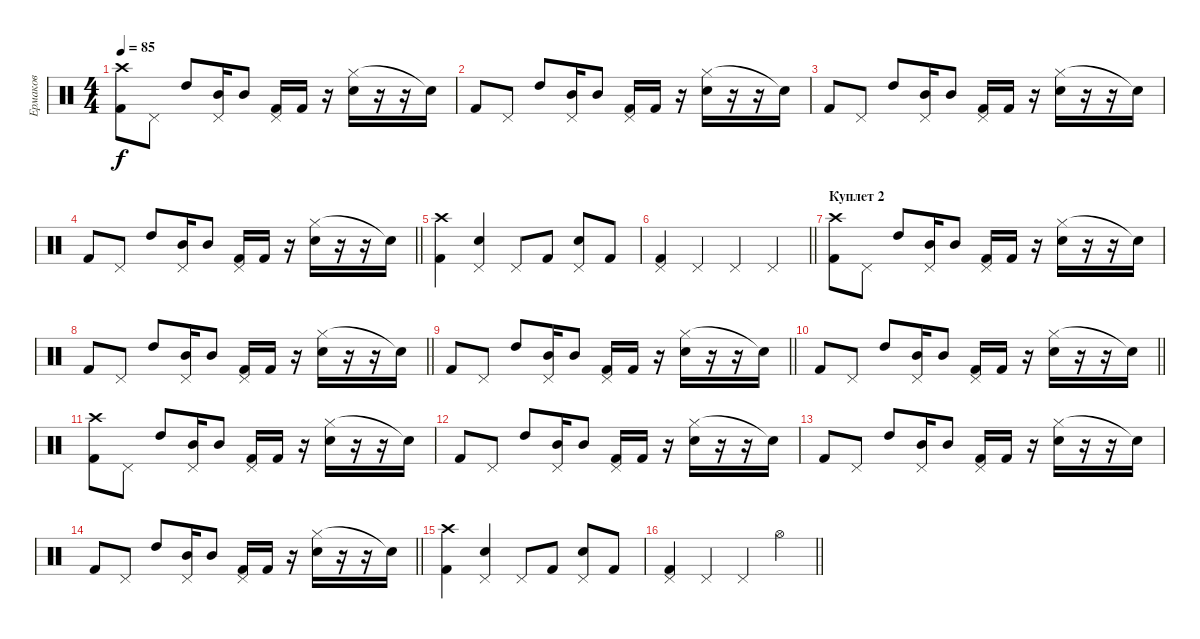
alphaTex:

\track ("Ермаков" "Ермаков") {instrument percussion}
\staff {score}
\articulation defaults
\ts (4 4)
\tempo 85
\clef neutral
\ks c
("Crash high (hit)" "Kick (hit) 2").8{dy f} "Pedal Hi-Hat (hit)".8 "High Tom (hit)".8 ("Pedal Hi-Hat (hit)" "Mid Tom (hit)").16 "Mid Tom (hit)".8 ("Pedal Hi-Hat (hit)" "Kick (hit) 2").16 "Kick (hit) 2".16 r.16 ("Hi-Hat (closed)" "Snare (hit) 2").16 r.16 r.16 "Snare (hit)"{t}.16 |
"Kick (hit) 2".8 "Pedal Hi-Hat (hit)".8 "High Tom (hit)".8 ("Pedal Hi-Hat (hit)" "Mid Tom (hit)").16 "Mid Tom (hit)".8 ("Pedal Hi-Hat (hit)" "Kick (hit) 2").16 "Kick (hit) 2".16 r.16 ("Hi-Hat (closed)" "Snare (hit) 2").16 r.16 r.16 "Snare (hit)"{t}.16 |
"Kick (hit) 2".8 "Pedal Hi-Hat (hit)".8 "High Tom (hit)".8 ("Pedal Hi-Hat (hit)" "Mid Tom (hit)").16 "Mid Tom (hit)".8 ("Pedal Hi-Hat (hit)" "Kick (hit) 2").16 "Kick (hit) 2".16 r.16 ("Hi-Hat (closed)" "Snare (hit) 2").16 r.16 r.16 "Snare (hit)"{t}.16 |
\barLineRight lightlight "Kick (hit) 2".8 "Pedal Hi-Hat (hit)".8 "High Tom (hit)".8
("Pedal Hi-Hat (hit)" "Mid Tom (hit)").16 "Mid Tom (hit)".8 ("Pedal Hi-Hat (hit)" "Kick (hit) 2").16 "Kick (hit) 2".16 r.16 ("Hi-Hat (closed)" "Snare (hit) 2").16 r.16 r.16 "Snare (hit)"{t}.16 |
\section ("" "")
("Crash high (hit)" "Kick (hit) 2").4 ("Pedal Hi-Hat (hit)" "Snare (hit) 2").4 "Pedal Hi-Hat (hit)".8 "Kick (hit) 2".8 ("Pedal Hi-Hat (hit)" "Snare (hit) 2").8 "Kick (hit) 2".8 |
\barLineRight lightlight
("Pedal Hi-Hat (hit)" "Kick (hit) 2").4 "Pedal Hi-Hat (hit)".4 "Pedal Hi-Hat (hit)".4 "Pedal Hi-Hat (hit)".4 |
\section ("" "Куплет 2")
("Crash high (hit)" "Kick (hit) 2").8 "Pedal Hi-Hat (hit)".8 "High Tom (hit)".8 ("Pedal Hi-Hat (hit)" "Mid Tom (hit)").16 "Mid Tom (hit)".8 ("Pedal Hi-Hat (hit)" "Kick (hit) 2").16 "Kick (hit) 2".16 r.16 ("Hi-Hat (closed)" "Snare (hit) 2").16 r.16 r.16 "Snare (hit)"{t}.16 |
\barLineRight lightlight "Kick (hit) 2".8 "Pedal Hi-Hat (hit)".8 "High Tom (hit)".8
("Pedal Hi-Hat (hit)" "Mid Tom (hit)").16 "Mid Tom (hit)".8 ("Pedal Hi-Hat (hit)" "Kick (hit) 2").16 "Kick (hit) 2".16 r.16 ("Hi-Hat (closed)" "Snare (hit) 2").16 r.16 r.16 "Snare (hit)"{t}.16 |
\barLineRight lightlight "Kick (hit) 2".8 "Pedal Hi-Hat (hit)".8 "High Tom (hit)".8
("Pedal Hi-Hat (hit)" "Mid Tom (hit)").16 "Mid Tom (hit)".8 ("Pedal Hi-Hat (hit)" "Kick (hit) 2").16 "Kick (hit) 2".16 r.16 ("Hi-Hat (closed)" "Snare (hit) 2").16 r.16 r.16 "Snare (hit)"{t}.16 |
\barLineRight lightlight "Kick (hit) 2".8 "Pedal Hi-Hat (hit)".8 "High Tom (hit)".8
("Pedal Hi-Hat (hit)" "Mid Tom (hit)").16 "Mid Tom (hit)".8 ("Pedal Hi-Hat (hit)" "Kick (hit) 2").16 "Kick (hit) 2".16 r.16 ("Hi-Hat (closed)" "Snare (hit) 2").16 r.16 r.16 "Snare (hit)"{t}.16 |
("Crash high (hit)" "Kick (hit) 2").8 "Pedal Hi-Hat (hit)".8 "High Tom (hit)".8 ("Pedal Hi-Hat (hit)" "Mid Tom (hit)").16 "Mid Tom (hit)".8 ("Pedal Hi-Hat (hit)" "Kick (hit) 2").16 "Kick (hit) 2".16 r.16 ("Hi-Hat (closed)" "Snare (hit) 2").16 r.16 r.16 "Snare (hit)"{t}.16 |
"Kick (hit) 2".8 "Pedal Hi-Hat (hit)".8 "High Tom (hit)".8 ("Pedal Hi-Hat (hit)" "Mid Tom (hit)").16 "Mid Tom (hit)".8 ("Pedal Hi-Hat (hit)" "Kick (hit) 2").16 "Kick (hit) 2".16 r.16 ("Hi-Hat (closed)" "Snare (hit) 2").16 r.16 r.16 "Snare (hit)"{t}.16 |
"Kick (hit) 2".8 "Pedal Hi-Hat (hit)".8 "High Tom (hit)".8 ("Pedal Hi-Hat (hit)" "Mid Tom (hit)").16 "Mid Tom (hit)".8 ("Pedal Hi-Hat (hit)" "Kick (hit) 2").16 "Kick (hit) 2".16 r.16 ("Hi-Hat (closed)" "Snare (hit) 2").16 r.16 r.16 "Snare (hit)"{t}.16 |
\barLineRight lightlight "Kick (hit) 2".8 "Pedal Hi-Hat (hit)".8 "High Tom (hit)".8
("Pedal Hi-Hat (hit)" "Mid Tom (hit)").16 "Mid Tom (hit)".8 ("Pedal Hi-Hat (hit)" "Kick (hit) 2").16 "Kick (hit) 2".16 r.16 ("Hi-Hat (closed)" "Snare (hit) 2").16 r.16 r.16 "Snare (hit)"{t}.16 |
("Crash high (hit)" "Kick (hit) 2").4 ("Pedal Hi-Hat (hit)" "Snare (hit) 2").4 "Pedal Hi-Hat (hit)".8 "Kick (hit) 2".8 ("Pedal Hi-Hat (hit)" "Snare (hit) 2").8 "Kick (hit) 2".8 |
\barLineRight lightlight
("Pedal Hi-Hat (hit)" "Kick (hit) 2").4 "Pedal Hi-Hat (hit)".4 "Pedal Hi-Hat (hit)".4 "Hi-Hat (open)".4
